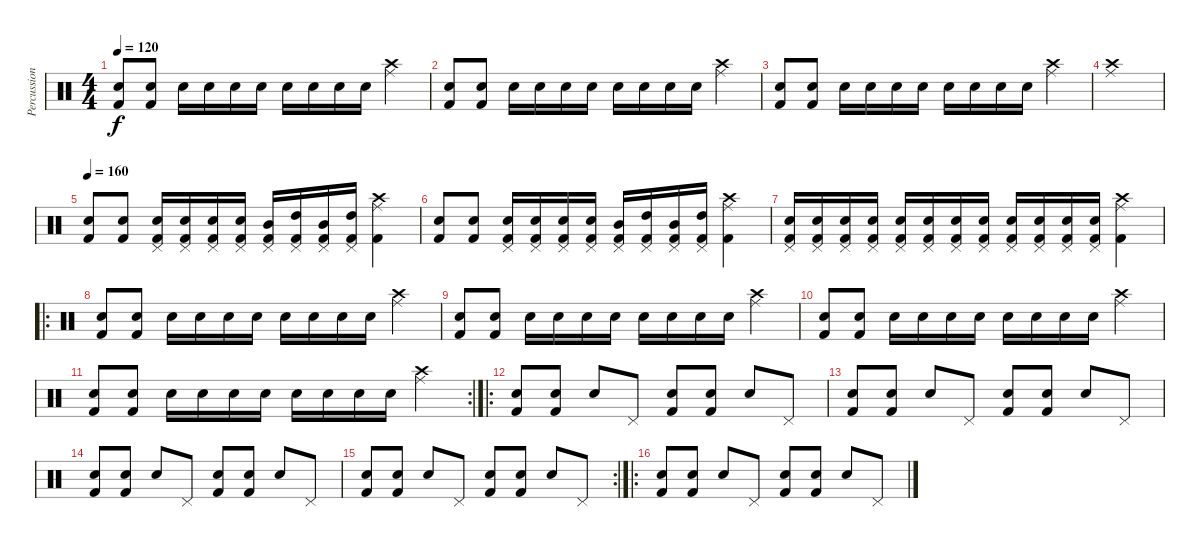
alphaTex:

\track ("Percussion" "Percussion") {instrument percussion}
\staff {score}
\articulation defaults
\ts (4 4)
\tempo 120
\clef neutral
\ks c
("Electric Snare (hit)" "Kick (hit) 2").8{dy f} ("Electric Snare (hit)" "Kick (hit) 2").8 "Electric Snare (hit)".16 "Electric Snare (hit)".16 "Electric Snare (hit)".16 "Electric Snare (hit)".16 "Electric Snare (hit)".16 "Electric Snare (hit)".16 "Electric Snare (hit)".16 "Electric Snare (hit)".16 ("Ride (middle)" "Crash high (hit)").4 |
("Electric Snare (hit)" "Kick (hit) 2").8 ("Electric Snare (hit)" "Kick (hit) 2").8 "Electric Snare (hit)".16 "Electric Snare (hit)".16 "Electric Snare (hit)".16 "Electric Snare (hit)".16 "Electric Snare (hit)".16 "Electric Snare (hit)".16 "Electric Snare (hit)".16 "Electric Snare (hit)".16 ("Ride (middle)" "Crash high (hit)").4 |
("Electric Snare (hit)" "Kick (hit) 2").8 ("Electric Snare (hit)" "Kick (hit) 2").8 "Electric Snare (hit)".16 "Electric Snare (hit)".16 "Electric Snare (hit)".16 "Electric Snare (hit)".16 "Electric Snare (hit)".16 "Electric Snare (hit)".16 "Electric Snare (hit)".16 "Electric Snare (hit)".16 ("Ride (middle)" "Crash high (hit)").4 |
("Ride (middle)" "Crash high (hit)").1 |
\tempo 160
("Electric Snare (hit)" "Kick (hit) 2").8 ("Electric Snare (hit)" "Kick (hit) 2").8 ("Pedal Hi-Hat (hit)" "Electric Snare (hit)" "Kick (hit) 2").16 ("Pedal Hi-Hat (hit)" "Electric Snare (hit)" "Kick (hit) 2").16 ("Pedal Hi-Hat (hit)" "Electric Snare (hit)" "Kick (hit) 2").16 ("Pedal Hi-Hat (hit)" "Electric Snare (hit)" "Kick (hit) 2").16 ("Pedal Hi-Hat (hit)" "Mid Tom (hit)" "Kick (hit) 2").16 ("Pedal Hi-Hat (hit)" "High Tom (hit)" "Kick (hit) 2").16 ("Pedal Hi-Hat (hit)" "Mid Tom (hit)" "Kick (hit) 2").16 ("Pedal Hi-Hat (hit)" "High Tom (hit)" "Kick (hit) 2").16 ("Ride (middle)" "Crash high (hit)" "Kick (hit) 2").4 |
("Electric Snare (hit)" "Kick (hit) 2").8 ("Electric Snare (hit)" "Kick (hit) 2").8 ("Pedal Hi-Hat (hit)" "Electric Snare (hit)" "Kick (hit) 2").16 ("Pedal Hi-Hat (hit)" "Electric Snare (hit)" "Kick (hit) 2").16 ("Pedal Hi-Hat (hit)" "Electric Snare (hit)" "Kick (hit) 2").16 ("Pedal Hi-Hat (hit)" "Electric Snare (hit)" "Kick (hit) 2").16 ("Pedal Hi-Hat (hit)" "Mid Tom (hit)" "Kick (hit) 2").16 ("Pedal Hi-Hat (hit)" "High Tom (hit)" "Kick (hit) 2").16 ("Pedal Hi-Hat (hit)" "Mid Tom (hit)" "Kick (hit) 2").16 ("Pedal Hi-Hat (hit)" "High Tom (hit)" "Kick (hit) 2").16 ("Ride (middle)" "Crash high (hit)" "Kick (hit) 2").4 |
("Pedal Hi-Hat (hit)" "Electric Snare (hit)" "Kick (hit) 2").16 ("Pedal Hi-Hat (hit)" "Electric Snare (hit)" "Kick (hit) 2").16 ("Pedal Hi-Hat (hit)" "Electric Snare (hit)" "Kick (hit) 2").16 ("Pedal Hi-Hat (hit)" "Electric Snare (hit)" "Kick (hit) 2").16 ("Pedal Hi-Hat (hit)" "Electric Snare (hit)" "Kick (hit) 2").16 ("Pedal Hi-Hat (hit)" "Electric Snare (hit)" "Kick (hit) 2").16 ("Pedal Hi-Hat (hit)" "Electric Snare (hit)" "Kick (hit) 2").16 ("Pedal Hi-Hat (hit)" "Electric Snare (hit)" "Kick (hit) 2").16 ("Pedal Hi-Hat (hit)" "Electric Snare (hit)" "Kick (hit) 2").16 ("Pedal Hi-Hat (hit)" "Electric Snare (hit)" "Kick (hit) 2").16 ("Pedal Hi-Hat (hit)" "Electric Snare (hit)" "Kick (hit) 2").16 ("Pedal Hi-Hat (hit)" "Electric Snare (hit)" "Kick (hit) 2").16 ("Ride (middle)" "Crash high (hit)" "Kick (hit) 2").4 |
\ro
("Electric Snare (hit)" "Kick (hit) 2").8 ("Electric Snare (hit)" "Kick (hit) 2").8 "Electric Snare (hit)".16 "Electric Snare (hit)".16 "Electric Snare (hit)".16 "Electric Snare (hit)".16 "Electric Snare (hit)".16 "Electric Snare (hit)".16 "Electric Snare (hit)".16 "Electric Snare (hit)".16 ("Ride (middle)" "Crash high (hit)").4 |
("Electric Snare (hit)" "Kick (hit) 2").8 ("Electric Snare (hit)" "Kick (hit) 2").8 "Electric Snare (hit)".16 "Electric Snare (hit)".16 "Electric Snare (hit)".16 "Electric Snare (hit)".16 "Electric Snare (hit)".16 "Electric Snare (hit)".16 "Electric Snare (hit)".16 "Electric Snare (hit)".16 ("Ride (middle)" "Crash high (hit)").4 |
("Electric Snare (hit)" "Kick (hit) 2").8 ("Electric Snare (hit)" "Kick (hit) 2").8 "Electric Snare (hit)".16 "Electric Snare (hit)".16 "Electric Snare (hit)".16 "Electric Snare (hit)".16 "Electric Snare (hit)".16 "Electric Snare (hit)".16 "Electric Snare (hit)".16 "Electric Snare (hit)".16 ("Ride (middle)" "Crash high (hit)").4 |
\rc 2
("Electric Snare (hit)" "Kick (hit) 2").8 ("Electric Snare (hit)" "Kick (hit) 2").8 "Electric Snare (hit)".16 "Electric Snare (hit)".16 "Electric Snare (hit)".16 "Electric Snare (hit)".16 "Electric Snare (hit)".16 "Electric Snare (hit)".16 "Electric Snare (hit)".16 "Electric Snare (hit)".16 ("Ride (middle)" "Crash high (hit)").4 |
\ro
("Electric Snare (hit)" "Kick (hit) 2").8 ("Electric Snare (hit)" "Kick (hit) 2").8 "Electric Snare (hit)".8 "Pedal Hi-Hat (hit)".8 ("Electric Snare (hit)" "Kick (hit) 2").8 ("Electric Snare (hit)" "Kick (hit) 2").8 "Electric Snare (hit)".8 "Pedal Hi-Hat (hit)".8 |
("Electric Snare (hit)" "Kick (hit) 2").8 ("Electric Snare (hit)" "Kick (hit) 2").8 "Electric Snare (hit)".8 "Pedal Hi-Hat (hit)".8 ("Electric Snare (hit)" "Kick (hit) 2").8 ("Electric Snare (hit)" "Kick (hit) 2").8 "Electric Snare (hit)".8 "Pedal Hi-Hat (hit)".8 |
("Electric Snare (hit)" "Kick (hit) 2").8 ("Electric Snare (hit)" "Kick (hit) 2").8 "Electric Snare (hit)".8 "Pedal Hi-Hat (hit)".8 ("Electric Snare (hit)" "Kick (hit) 2").8 ("Electric Snare (hit)" "Kick (hit) 2").8 "Electric Snare (hit)".8 "Pedal Hi-Hat (hit)".8 |
\rc 2
("Electric Snare (hit)" "Kick (hit) 2").8 ("Electric Snare (hit)" "Kick (hit) 2").8 "Electric Snare (hit)".8 "Pedal Hi-Hat (hit)".8 ("Electric Snare (hit)" "Kick (hit) 2").8 ("Electric Snare (hit)" "Kick (hit) 2").8 "Electric Snare (hit)".8 "Pedal Hi-Hat (hit)".8 |
\ro
("Electric Snare (hit)" "Kick (hit) 2").8 ("Electric Snare (hit)" "Kick (hit) 2").8 "Electric Snare (hit)".8 "Pedal Hi-Hat (hit)".8 ("Electric Snare (hit)" "Kick (hit) 2").8 ("Electric Snare (hit)" "Kick (hit) 2").8 "Electric Snare (hit)".8 "Pedal Hi-Hat (hit)".8
